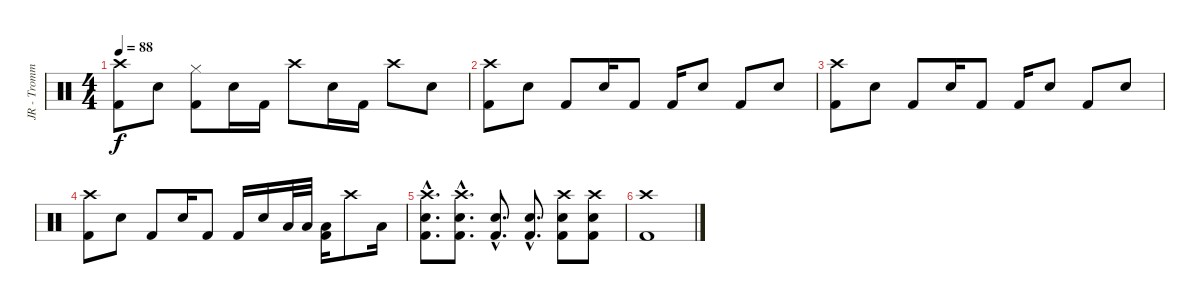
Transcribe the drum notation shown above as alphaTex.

\track ("JR - Trommesett" "JR - Tromm") {instrument percussion}
\staff {score}
\articulation defaults
\ts (4 4)
\tempo 88
\clef neutral
\ks c
("Crash high (hit)" "Kick (hit) 2").8{dy f} "Electric Snare (hit)".8 ("Hi-Hat (closed)" "Kick (hit) 2").8 "Electric Snare (hit)".16 "Kick (hit) 2".16 "Crash high (hit)".8 "Electric Snare (hit)".16 "Kick (hit) 2".16 "Crash high (hit)".8 "Electric Snare (hit)".8 |
("Crash high (hit)" "Kick (hit) 2").8 "Electric Snare (hit)".8 "Kick (hit) 2".8 "Electric Snare (hit)".16 "Kick (hit) 2".8 "Kick (hit) 2".16 "Electric Snare (hit)".8 "Kick (hit) 2".8 "Electric Snare (hit)".8 |
("Crash high (hit)" "Kick (hit) 2").8 "Electric Snare (hit)".8 "Kick (hit) 2".8 "Electric Snare (hit)".16 "Kick (hit) 2".8 "Kick (hit) 2".16 "Electric Snare (hit)".8 "Kick (hit) 2".8 "Electric Snare (hit)".8 |
("Crash high (hit)" "Kick (hit) 2").8 "Electric Snare (hit)".8 "Kick (hit) 2".8 "Electric Snare (hit)".16 "Kick (hit) 2".8 "Kick (hit) 2".16 "Electric Snare (hit)".16 "Low Tom (hit)".32 "Low Tom (hit)".32 ("Low Tom (hit)" "Kick (hit) 2").16 "Crash high (hit)".8 "Low Tom (hit)".16 |
("Crash high (hit)"{hac} "Electric Snare (hit)"{hac} "Kick (hit) 2"{hac}).8{d} ("Crash high (hit)"{hac} "Electric Snare (hit)"{hac} "Kick (hit) 2"{hac}).8{d} ("Electric Snare (hit)"{hac} "Kick (hit) 2"{hac}).8{d} ("Electric Snare (hit)"{hac} "Kick (hit) 2"{hac}).8{d} ("Crash high (hit)" "Electric Snare (hit)" "Kick (hit) 2").8 ("Crash high (hit)" "Electric Snare (hit)" "Kick (hit) 2").8 |
("Crash high (hit)" "Kick (hit) 2").1
